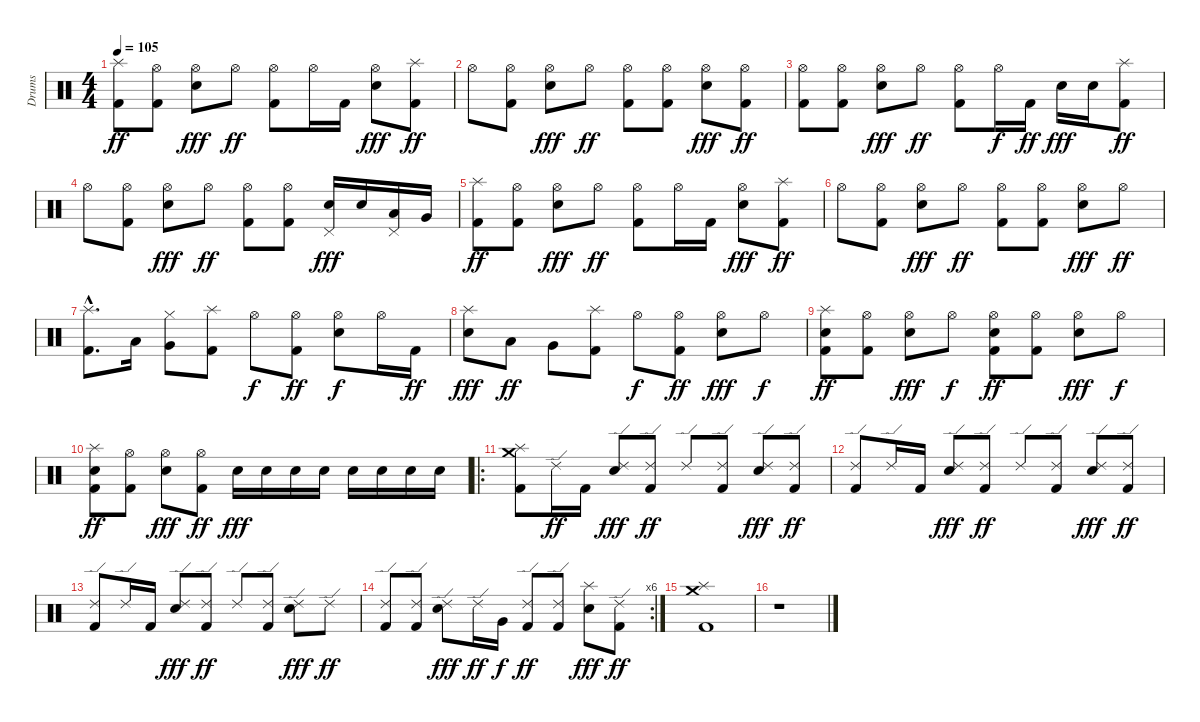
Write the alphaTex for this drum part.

\track ("Drums" "Drums") {instrument percussion}
\staff {score}
\articulation defaults
\ts (4 4)
\tempo 105
\clef neutral
\ks c
("Splash (hit)" "Kick (hit) 2").8{dy ff} ("Hi-Hat (open)" "Kick (hit) 2").8 ("Hi-Hat (open)" "Electric Snare (hit)").8{dy fff} "Hi-Hat (open)".8{dy ff} ("Hi-Hat (open)" "Kick (hit) 2").8 "Hi-Hat (open)".16 "Kick (hit) 2".16 ("Hi-Hat (open)" "Electric Snare (hit)").8{dy fff} ("Splash (hit)" "Kick (hit) 2").8{dy ff} |
"Hi-Hat (open)".8 ("Hi-Hat (open)" "Kick (hit) 2").8 ("Hi-Hat (open)" "Electric Snare (hit)").8{dy fff} "Hi-Hat (open)".8{dy ff} ("Hi-Hat (open)" "Kick (hit) 2").8 ("Hi-Hat (open)" "Kick (hit) 2").8 ("Hi-Hat (open)" "Electric Snare (hit)").8{dy fff} ("Hi-Hat (open)" "Kick (hit) 2").8{dy ff} |
("Hi-Hat (open)" "Kick (hit) 2").8 ("Hi-Hat (open)" "Kick (hit) 2").8 ("Hi-Hat (open)" "Electric Snare (hit)").8{dy fff} "Hi-Hat (open)".8{dy ff} ("Hi-Hat (open)" "Kick (hit) 2").8 "Hi-Hat (open)".16{dy f} "Kick (hit) 2".16{dy ff} "Electric Snare (hit)".16{dy fff} "Electric Snare (hit)".16 ("Splash (hit)" "Kick (hit) 2").8{dy ff} |
"Hi-Hat (open)".8 ("Hi-Hat (open)" "Kick (hit) 2").8 ("Hi-Hat (open)" "Electric Snare (hit)").8{dy fff} "Hi-Hat (open)".8{dy ff} ("Hi-Hat (open)" "Kick (hit) 2").8 ("Hi-Hat (open)" "Kick (hit) 2").8 ("Pedal Hi-Hat (hit)" "Electric Snare (hit)").16{dy fff} "Electric Snare (hit)".16 ("Pedal Hi-Hat (hit)" "Low Tom (hit)").16 "Very Low Tom (hit)".16 |
("Splash (hit)" "Kick (hit) 2").8{dy ff} ("Hi-Hat (open)" "Kick (hit) 2").8 ("Hi-Hat (open)" "Electric Snare (hit)").8{dy fff} "Hi-Hat (open)".8{dy ff} ("Hi-Hat (open)" "Kick (hit) 2").8 "Hi-Hat (open)".16 "Kick (hit) 2".16 ("Hi-Hat (open)" "Electric Snare (hit)").8{dy fff} ("Splash (hit)" "Kick (hit) 2").8{dy ff} |
"Hi-Hat (open)".8 ("Hi-Hat (open)" "Kick (hit) 2").8 ("Hi-Hat (open)" "Electric Snare (hit)").8{dy fff} "Hi-Hat (open)".8{dy ff} ("Hi-Hat (open)" "Kick (hit) 2").8 ("Hi-Hat (open)" "Kick (hit) 2").8 ("Hi-Hat (open)" "Electric Snare (hit)").8{dy fff} "Hi-Hat (open)".8{dy ff} |
("Splash (hit)"{hac} "Kick (hit) 2"{hac}).8{d} "Low Tom (hit)".16 ("Hi-Hat (closed)" "Very Low Tom (hit)").8 ("Splash (hit)" "Kick (hit) 2").8 "Hi-Hat (open)".8{dy f} ("Hi-Hat (open)" "Kick (hit) 2").8{dy ff} ("Hi-Hat (open)" "Electric Snare (hit)").8{dy f} "Hi-Hat (open)".16 "Kick (hit) 2".16{dy ff} |
("Splash (hit)" "Electric Snare (hit)").8{dy fff} "Low Tom (hit)".8{dy ff} "Very Low Tom (hit)".8 ("Splash (hit)" "Kick (hit) 2").8 "Hi-Hat (open)".8{dy f} ("Hi-Hat (open)" "Kick (hit) 2").8{dy ff} ("Hi-Hat (open)" "Electric Snare (hit)").8{dy fff} "Hi-Hat (open)".8{dy f} |
("Splash (hit)" "Electric Snare (hit)" "Kick (hit) 2").8{dy ff} ("Hi-Hat (open)" "Kick (hit) 2").8 ("Hi-Hat (open)" "Electric Snare (hit)").8{dy fff} "Hi-Hat (open)".8{dy f} ("Hi-Hat (open)" "Electric Snare (hit)" "Kick (hit) 2").8{dy ff} ("Hi-Hat (open)" "Kick (hit) 2").8 ("Hi-Hat (open)" "Electric Snare (hit)").8{dy fff} "Hi-Hat (open)".8{dy f} |
("Splash (hit)" "Electric Snare (hit)" "Kick (hit) 2").8{dy ff} ("Hi-Hat (open)" "Kick (hit) 2").8 ("Hi-Hat (open)" "Electric Snare (hit)").8{dy fff} ("Hi-Hat (open)" "Kick (hit) 2").8{dy ff} "Electric Snare (hit)".16{dy fff} "Electric Snare (hit)".16 "Electric Snare (hit)".16 "Electric Snare (hit)".16 "Electric Snare (hit)".16 "Electric Snare (hit)".16 "Electric Snare (hit)".16 "Electric Snare (hit)".16 |
\ro
("Splash (hit)" "Crash medium (hit)" "Kick (hit) 2").8 "Ride (edge) 2".16{dy ff} "Kick (hit) 2".16 ("Ride (edge) 2" "Electric Snare (hit)").8{dy fff} ("Ride (edge) 2" "Kick (hit) 2").8{dy ff} "Ride (edge) 2".8 ("Ride (edge) 2" "Kick (hit) 2").8 ("Ride (edge) 2" "Electric Snare (hit)").8{dy fff} ("Ride (edge) 2" "Kick (hit) 2").8{dy ff} |
("Ride (edge) 2" "Kick (hit) 2").8 "Ride (edge) 2".16 "Kick (hit) 2".16 ("Ride (edge) 2" "Electric Snare (hit)").8{dy fff} ("Ride (edge) 2" "Kick (hit) 2").8{dy ff} "Ride (edge) 2".8 ("Ride (edge) 2" "Kick (hit) 2").8 ("Ride (edge) 2" "Electric Snare (hit)").8{dy fff} ("Ride (edge) 2" "Kick (hit) 2").8{dy ff} |
("Ride (edge) 2" "Kick (hit) 2").8 "Ride (edge) 2".16 "Kick (hit) 2".16 ("Ride (edge) 2" "Electric Snare (hit)").8{dy fff} ("Ride (edge) 2" "Kick (hit) 2").8{dy ff} "Ride (edge) 2".8 ("Ride (edge) 2" "Kick (hit) 2").8 ("Ride (edge) 2" "Electric Snare (hit)").8{dy fff} "Ride (edge) 2".8{dy ff} |
\rc 6
("Ride (edge) 2" "Kick (hit) 2").8 ("Ride (edge) 2" "Kick (hit) 2").8 ("Ride (edge) 2" "Electric Snare (hit)").8{dy fff} "Ride (edge) 2".16{dy ff} "Very Low Tom (hit)".16{dy f} ("Ride (edge) 2" "Kick (hit) 2").8{dy ff} ("Ride (edge) 2" "Kick (hit) 2").8 ("Splash (hit)" "Electric Snare (hit)").8{dy fff} ("Ride (edge) 2" "Kick (hit) 2").8{dy ff} |
("Splash (hit)" "Crash medium (hit)" "Kick (hit) 2").1 |
r.1
